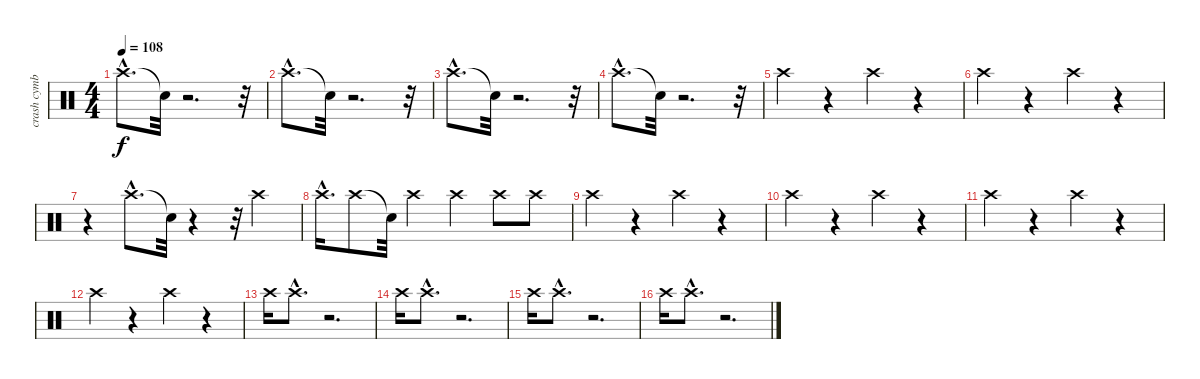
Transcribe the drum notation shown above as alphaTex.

\track ("crash cymbal        " "crash cymb") {instrument percussion}
\staff {score}
\articulation defaults
\ts (4 4)
\tempo 108
\clef neutral
\ks c "Crash high (hit)"{hac}.8{d dy f} "Snare (hit)"{t}.32
r.2{d} r.32 |
"Crash high (hit)"{hac}.8{d} "Snare (hit)"{t}.32 r.2{d} r.32 |
"Crash high (hit)"{hac}.8{d} "Snare (hit)"{t}.32 r.2{d} r.32 |
"Crash high (hit)"{hac}.8{d} "Snare (hit)"{t}.32 r.2{d} r.32 |
"Crash high (hit)".4 r.4 "Crash high (hit)".4 r.4 |
"Crash high (hit)".4 r.4 "Crash high (hit)".4 r.4 |
r.4 "Crash high (hit)"{hac}.8{d} "Snare (hit)"{t}.32 r.4 r.32 "Crash high (hit)".4 |
"Crash high (hit)"{hac}.16{d} "Crash high (hit)".8 "Snare (hit)"{t}.32 "Crash high (hit)".4 "Crash high (hit)".4 "Crash high (hit)".8 "Crash high (hit)".8 |
"Crash high (hit)".4 r.4 "Crash high (hit)".4 r.4 |
"Crash high (hit)".4 r.4 "Crash high (hit)".4 r.4 |
"Crash high (hit)".4 r.4 "Crash high (hit)".4 r.4 |
"Crash high (hit)".4 r.4 "Crash high (hit)".4 r.4 |
"Crash high (hit)".16 "Crash high (hit)"{hac}.8{d} r.2{d} |
"Crash high (hit)".16 "Crash high (hit)"{hac}.8{d} r.2{d} |
"Crash high (hit)".16 "Crash high (hit)"{hac}.8{d} r.2{d} |
"Crash high (hit)".16 "Crash high (hit)"{hac}.8{d} r.2{d}
